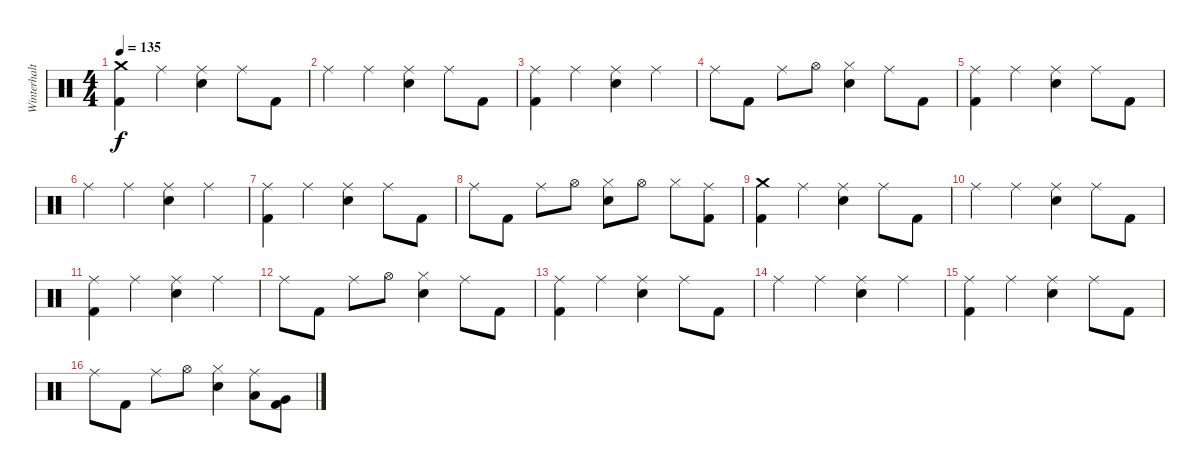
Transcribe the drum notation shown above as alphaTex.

\track ("Winterhalter" "Winterhalt") {instrument percussion}
\staff {score}
\articulation defaults
\ts (4 4)
\tempo 135
\clef neutral
\ks c
("Crash medium (hit)" "Kick (hit) 2").4{dy f} "Ride (middle)".4 ("Ride (middle)" "Snare (hit) 2").4 "Ride (middle)".8 "Kick (hit) 2".8 |
"Ride (middle)".4 "Ride (middle)".4 ("Ride (middle)" "Snare (hit) 2").4 "Ride (middle)".8 "Kick (hit) 2".8 |
("Ride (middle)" "Kick (hit) 2").4 "Ride (middle)".4 ("Ride (middle)" "Snare (hit) 2").4 "Ride (middle)".4 |
"Ride (middle)".8 "Kick (hit) 2".8 "Ride (middle)".8 "Hi-Hat (open)".8 ("Hi-Hat (closed)" "Snare (hit) 2").4 "Ride (middle)".8 "Kick (hit) 2".8 |
("Ride (middle)" "Kick (hit) 2").4 "Ride (middle)".4 ("Ride (middle)" "Snare (hit) 2").4 "Ride (middle)".8 "Kick (hit) 2".8 |
"Ride (middle)".4 "Ride (middle)".4 ("Ride (middle)" "Snare (hit) 2").4 "Ride (middle)".4 |
("Ride (middle)" "Kick (hit) 2").4 "Ride (middle)".4 ("Ride (middle)" "Snare (hit) 2").4 "Ride (middle)".8 "Kick (hit) 2".8 |
"Ride (middle)".8 "Kick (hit) 2".8 "Ride (middle)".8 "Hi-Hat (open)".8 ("Hi-Hat (closed)" "Snare (hit) 2").8 "Hi-Hat (open)".8 "Hi-Hat (closed)".8 ("Ride (middle)" "Kick (hit) 2").8 |
("Crash medium (hit)" "Kick (hit) 2").4 "Ride (middle)".4 ("Ride (middle)" "Snare (hit) 2").4 "Ride (middle)".8 "Kick (hit) 2".8 |
"Ride (middle)".4 "Ride (middle)".4 ("Ride (middle)" "Snare (hit) 2").4 "Ride (middle)".8 "Kick (hit) 2".8 |
("Ride (middle)" "Kick (hit) 2").4 "Ride (middle)".4 ("Ride (middle)" "Snare (hit) 2").4 "Ride (middle)".4 |
"Ride (middle)".8 "Kick (hit) 2".8 "Ride (middle)".8 "Hi-Hat (open)".8 ("Hi-Hat (closed)" "Snare (hit) 2").4 "Ride (middle)".8 "Kick (hit) 2".8 |
("Ride (middle)" "Kick (hit) 2").4 "Ride (middle)".4 ("Ride (middle)" "Snare (hit) 2").4 "Ride (middle)".8 "Kick (hit) 2".8 |
"Ride (middle)".4 "Ride (middle)".4 ("Ride (middle)" "Snare (hit) 2").4 "Ride (middle)".4 |
("Ride (middle)" "Kick (hit) 2").4 "Ride (middle)".4 ("Ride (middle)" "Snare (hit) 2").4 "Ride (middle)".8 "Kick (hit) 2".8 |
"Ride (middle)".8 "Kick (hit) 2".8 "Ride (middle)".8 "Hi-Hat (open)".8 ("Hi-Hat (closed)" "Snare (hit) 2").4 ("Ride (middle)" "Low Tom (hit)").8 ("Very Low Tom (hit)" "Kick (hit) 2").8
